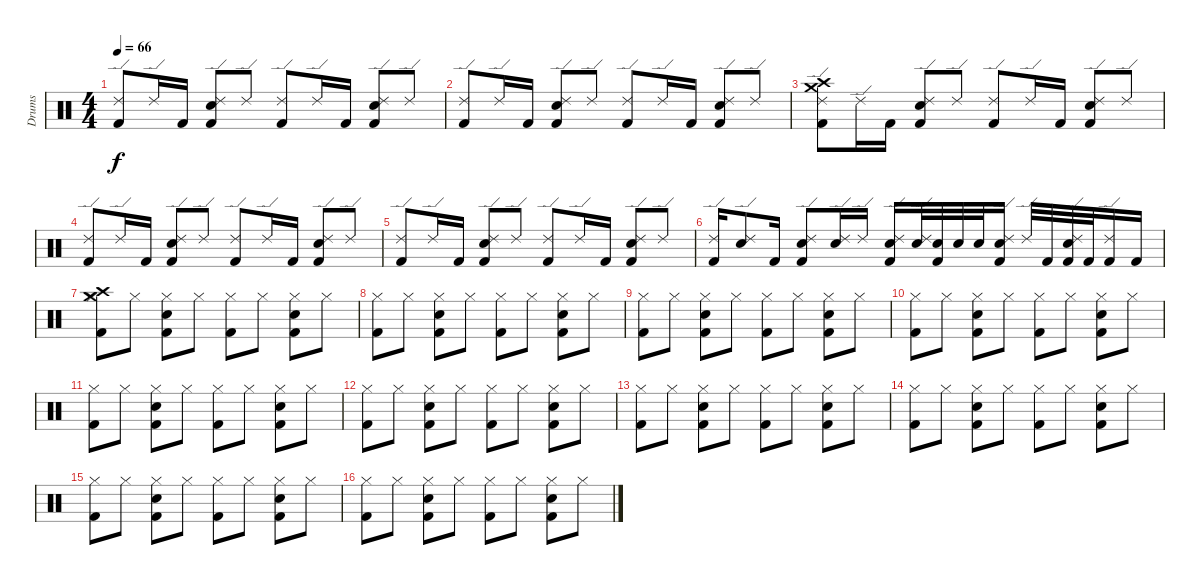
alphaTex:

\track ("Drums" "Drums") {instrument percussion}
\staff {score}
\articulation defaults
\ts (4 4)
\tempo 66
\clef neutral
\ks c
("Kick (hit) 2" "Ride (edge) 2").8{dy f} "Ride (edge) 2".16 "Kick (hit) 2".16 ("Kick (hit) 2" "Ride (edge) 2" "Snare (hit) 2").8 "Ride (edge) 2".8 ("Kick (hit) 2" "Ride (edge) 2").8 "Ride (edge) 2".16 "Kick (hit) 2".16 ("Kick (hit) 2" "Ride (edge) 2" "Snare (hit) 2").8 "Ride (edge) 2".8 |
("Kick (hit) 2" "Ride (edge) 2").8 "Ride (edge) 2".16 "Kick (hit) 2".16 ("Kick (hit) 2" "Ride (edge) 2" "Snare (hit) 2").8 "Ride (edge) 2".8 ("Kick (hit) 2" "Ride (edge) 2").8 "Ride (edge) 2".16 "Kick (hit) 2".16 ("Kick (hit) 2" "Ride (edge) 2" "Snare (hit) 2").8 "Ride (edge) 2".8 |
("Kick (hit) 2" "Ride (edge) 2" "Crash medium (hit)" "Crash high (hit)").8 "Ride (edge) 2".16 "Kick (hit) 2".16 ("Kick (hit) 2" "Ride (edge) 2" "Snare (hit) 2").8 "Ride (edge) 2".8 ("Kick (hit) 2" "Ride (edge) 2").8 "Ride (edge) 2".16 "Kick (hit) 2".16 ("Kick (hit) 2" "Ride (edge) 2" "Snare (hit) 2").8 "Ride (edge) 2".8 |
("Kick (hit) 2" "Ride (edge) 2").8 "Ride (edge) 2".16 "Kick (hit) 2".16 ("Kick (hit) 2" "Ride (edge) 2" "Snare (hit) 2").8 "Ride (edge) 2".8 ("Kick (hit) 2" "Ride (edge) 2").8 "Ride (edge) 2".16 "Kick (hit) 2".16 ("Kick (hit) 2" "Ride (edge) 2" "Snare (hit) 2").8 "Ride (edge) 2".8 |
("Kick (hit) 2" "Ride (edge) 2").8 "Ride (edge) 2".16 "Kick (hit) 2".16 ("Kick (hit) 2" "Ride (edge) 2" "Snare (hit) 2").8 "Ride (edge) 2".8 ("Kick (hit) 2" "Ride (edge) 2").8 "Ride (edge) 2".16 "Kick (hit) 2".16 ("Kick (hit) 2" "Ride (edge) 2" "Snare (hit) 2").8 "Ride (edge) 2".8 |
("Kick (hit) 2" "Ride (edge) 2").16 ("Ride (edge) 2" "Snare (hit) 2").8 "Kick (hit) 2".16 ("Kick (hit) 2" "Ride (edge) 2" "Snare (hit) 2").8 ("Ride (edge) 2" "Snare (hit) 2").16 "Ride (edge) 2".16 ("Kick (hit) 2" "Ride (edge) 2" "Snare (hit) 2").16 ("Ride (edge) 2" "Snare (hit) 2").32 ("Kick (hit) 2" "Snare (hit) 2").32 "Snare (hit) 2".32 "Snare (hit) 2".32 ("Kick (hit) 2" "Ride (edge) 2" "Snare (hit) 2").16 "Ride (edge) 2".32 "Kick (hit) 2".32 ("Kick (hit) 2" "Ride (edge) 2" "Snare (hit) 2").32 "Kick (hit) 2".32 ("Kick (hit) 2" "Ride (edge) 2").16 "Kick (hit) 2".16 |
("Kick (hit) 2" "Hi-Hat (closed)" "Crash high (hit)" "Crash medium (hit)").8 "Hi-Hat (closed)".8 ("Kick (hit) 2" "Hi-Hat (closed)" "Snare (hit) 2").8 "Hi-Hat (closed)".8 ("Kick (hit) 2" "Hi-Hat (closed)").8 "Hi-Hat (closed)".8 ("Kick (hit) 2" "Hi-Hat (closed)" "Snare (hit) 2").8 "Hi-Hat (closed)".8 |
("Kick (hit) 2" "Hi-Hat (closed)").8 "Hi-Hat (closed)".8 ("Kick (hit) 2" "Hi-Hat (closed)" "Snare (hit) 2").8 "Hi-Hat (closed)".8 ("Kick (hit) 2" "Hi-Hat (closed)").8 "Hi-Hat (closed)".8 ("Kick (hit) 2" "Hi-Hat (closed)" "Snare (hit) 2").8 "Hi-Hat (closed)".8 |
("Kick (hit) 2" "Hi-Hat (closed)").8 "Hi-Hat (closed)".8 ("Kick (hit) 2" "Hi-Hat (closed)" "Snare (hit) 2").8 "Hi-Hat (closed)".8 ("Kick (hit) 2" "Hi-Hat (closed)").8 "Hi-Hat (closed)".8 ("Kick (hit) 2" "Hi-Hat (closed)" "Snare (hit) 2").8 "Hi-Hat (closed)".8 |
("Kick (hit) 2" "Hi-Hat (closed)").8 "Hi-Hat (closed)".8 ("Kick (hit) 2" "Hi-Hat (closed)" "Snare (hit) 2").8 "Hi-Hat (closed)".8 ("Kick (hit) 2" "Hi-Hat (closed)").8 "Hi-Hat (closed)".8 ("Kick (hit) 2" "Hi-Hat (closed)" "Snare (hit) 2").8 "Hi-Hat (closed)".8 |
("Kick (hit) 2" "Hi-Hat (closed)").8 "Hi-Hat (closed)".8 ("Kick (hit) 2" "Hi-Hat (closed)" "Snare (hit) 2").8 "Hi-Hat (closed)".8 ("Kick (hit) 2" "Hi-Hat (closed)").8 "Hi-Hat (closed)".8 ("Kick (hit) 2" "Hi-Hat (closed)" "Snare (hit) 2").8 "Hi-Hat (closed)".8 |
("Kick (hit) 2" "Hi-Hat (closed)").8 "Hi-Hat (closed)".8 ("Kick (hit) 2" "Hi-Hat (closed)" "Snare (hit) 2").8 "Hi-Hat (closed)".8 ("Kick (hit) 2" "Hi-Hat (closed)").8 "Hi-Hat (closed)".8 ("Kick (hit) 2" "Hi-Hat (closed)" "Snare (hit) 2").8 "Hi-Hat (closed)".8 |
("Kick (hit) 2" "Hi-Hat (closed)").8 "Hi-Hat (closed)".8 ("Kick (hit) 2" "Hi-Hat (closed)" "Snare (hit) 2").8 "Hi-Hat (closed)".8 ("Kick (hit) 2" "Hi-Hat (closed)").8 "Hi-Hat (closed)".8 ("Kick (hit) 2" "Hi-Hat (closed)" "Snare (hit) 2").8 "Hi-Hat (closed)".8 |
("Kick (hit) 2" "Hi-Hat (closed)").8 "Hi-Hat (closed)".8 ("Kick (hit) 2" "Hi-Hat (closed)" "Snare (hit) 2").8 "Hi-Hat (closed)".8 ("Kick (hit) 2" "Hi-Hat (closed)").8 "Hi-Hat (closed)".8 ("Kick (hit) 2" "Hi-Hat (closed)" "Snare (hit) 2").8 "Hi-Hat (closed)".8 |
("Kick (hit) 2" "Hi-Hat (closed)").8 "Hi-Hat (closed)".8 ("Kick (hit) 2" "Hi-Hat (closed)" "Snare (hit) 2").8 "Hi-Hat (closed)".8 ("Kick (hit) 2" "Hi-Hat (closed)").8 "Hi-Hat (closed)".8 ("Kick (hit) 2" "Hi-Hat (closed)" "Snare (hit) 2").8 "Hi-Hat (closed)".8 |
("Kick (hit) 2" "Hi-Hat (closed)").8 "Hi-Hat (closed)".8 ("Kick (hit) 2" "Hi-Hat (closed)" "Snare (hit) 2").8 "Hi-Hat (closed)".8 ("Kick (hit) 2" "Hi-Hat (closed)").8 "Hi-Hat (closed)".8 ("Kick (hit) 2" "Hi-Hat (closed)" "Snare (hit) 2").8 "Hi-Hat (closed)".8
